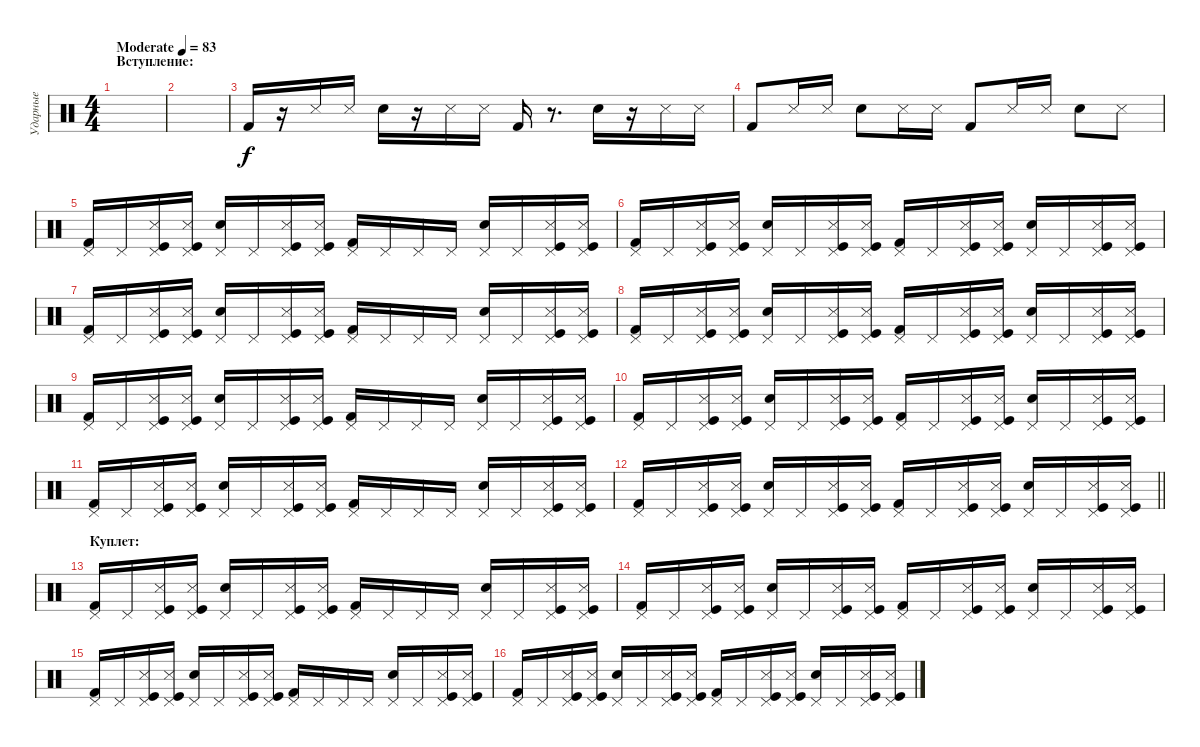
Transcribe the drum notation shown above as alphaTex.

\track ("Ударные" "Ударные") {instrument percussion}
\staff {score}
\articulation defaults
\ts (4 4)
\section ("" "Вступление:")
\tempo (83 "Moderate")
\clef neutral
\ks c
|
|
"Kick (hit) 2".16 r.16 "Snare (side stick) 3".16 "Snare (side stick) 3".16 "Electric Snare (hit)".16 r.16 "Snare (side stick) 3".16 "Snare (side stick) 3".16 "Kick (hit) 2".16 r.8{d} "Electric Snare (hit)".16 r.16 "Snare (side stick) 3".16 "Snare (side stick) 3".16 |
"Kick (hit) 2".8 "Snare (side stick) 3".16 "Snare (side stick) 3".16 "Electric Snare (hit)".8 "Snare (side stick) 3".16 "Snare (side stick) 3".16 "Kick (hit) 2".8 "Snare (side stick) 3".16 "Snare (side stick) 3".16 "Electric Snare (hit)".8 "Snare (side stick) 3".8 |
("Kick (hit) 2" "Pedal Hi-Hat (hit)").16 "Pedal Hi-Hat (hit)".16 ("Kick (hit)" "Snare (side stick) 3" "Pedal Hi-Hat (hit)").16 ("Kick (hit)" "Snare (side stick) 3" "Pedal Hi-Hat (hit)").16 ("Electric Snare (hit)" "Pedal Hi-Hat (hit)").16 "Pedal Hi-Hat (hit)".16 ("Kick (hit)" "Snare (side stick) 3" "Pedal Hi-Hat (hit)").16 ("Kick (hit)" "Snare (side stick) 3" "Pedal Hi-Hat (hit)").16 ("Kick (hit) 2" "Pedal Hi-Hat (hit)").16 "Pedal Hi-Hat (hit)".16 "Pedal Hi-Hat (hit)".16 "Pedal Hi-Hat (hit)".16 ("Electric Snare (hit)" "Pedal Hi-Hat (hit)").16 "Pedal Hi-Hat (hit)".16 ("Kick (hit)" "Snare (side stick) 3" "Pedal Hi-Hat (hit)").16 ("Kick (hit)" "Snare (side stick) 3" "Pedal Hi-Hat (hit)").16 |
("Kick (hit) 2" "Pedal Hi-Hat (hit)").16 "Pedal Hi-Hat (hit)".16 ("Kick (hit)" "Snare (side stick) 3" "Pedal Hi-Hat (hit)").16 ("Kick (hit)" "Snare (side stick) 3" "Pedal Hi-Hat (hit)").16 ("Electric Snare (hit)" "Pedal Hi-Hat (hit)").16 "Pedal Hi-Hat (hit)".16 ("Kick (hit)" "Snare (side stick) 3" "Pedal Hi-Hat (hit)").16 ("Kick (hit)" "Snare (side stick) 3" "Pedal Hi-Hat (hit)").16 ("Kick (hit) 2" "Pedal Hi-Hat (hit)").16 "Pedal Hi-Hat (hit)".16 ("Kick (hit)" "Snare (side stick) 3" "Pedal Hi-Hat (hit)").16 ("Kick (hit)" "Snare (side stick) 3" "Pedal Hi-Hat (hit)").16 ("Electric Snare (hit)" "Pedal Hi-Hat (hit)").16 "Pedal Hi-Hat (hit)".16 ("Kick (hit)" "Snare (side stick) 3" "Pedal Hi-Hat (hit)").16 ("Kick (hit)" "Snare (side stick) 3" "Pedal Hi-Hat (hit)").16 |
("Kick (hit) 2" "Pedal Hi-Hat (hit)").16 "Pedal Hi-Hat (hit)".16 ("Kick (hit)" "Snare (side stick) 3" "Pedal Hi-Hat (hit)").16 ("Kick (hit)" "Snare (side stick) 3" "Pedal Hi-Hat (hit)").16 ("Electric Snare (hit)" "Pedal Hi-Hat (hit)").16 "Pedal Hi-Hat (hit)".16 ("Kick (hit)" "Snare (side stick) 3" "Pedal Hi-Hat (hit)").16 ("Kick (hit)" "Snare (side stick) 3" "Pedal Hi-Hat (hit)").16 ("Kick (hit) 2" "Pedal Hi-Hat (hit)").16 "Pedal Hi-Hat (hit)".16 "Pedal Hi-Hat (hit)".16 "Pedal Hi-Hat (hit)".16 ("Electric Snare (hit)" "Pedal Hi-Hat (hit)").16 "Pedal Hi-Hat (hit)".16 ("Kick (hit)" "Snare (side stick) 3" "Pedal Hi-Hat (hit)").16 ("Kick (hit)" "Snare (side stick) 3" "Pedal Hi-Hat (hit)").16 |
("Kick (hit) 2" "Pedal Hi-Hat (hit)").16 "Pedal Hi-Hat (hit)".16 ("Kick (hit)" "Snare (side stick) 3" "Pedal Hi-Hat (hit)").16 ("Kick (hit)" "Snare (side stick) 3" "Pedal Hi-Hat (hit)").16 ("Electric Snare (hit)" "Pedal Hi-Hat (hit)").16 "Pedal Hi-Hat (hit)".16 ("Kick (hit)" "Snare (side stick) 3" "Pedal Hi-Hat (hit)").16 ("Kick (hit)" "Snare (side stick) 3" "Pedal Hi-Hat (hit)").16 ("Kick (hit) 2" "Pedal Hi-Hat (hit)").16 "Pedal Hi-Hat (hit)".16 ("Kick (hit)" "Snare (side stick) 3" "Pedal Hi-Hat (hit)").16 ("Kick (hit)" "Snare (side stick) 3" "Pedal Hi-Hat (hit)").16 ("Electric Snare (hit)" "Pedal Hi-Hat (hit)").16 "Pedal Hi-Hat (hit)".16 ("Kick (hit)" "Snare (side stick) 3" "Pedal Hi-Hat (hit)").16 ("Kick (hit)" "Snare (side stick) 3" "Pedal Hi-Hat (hit)").16 |
("Kick (hit) 2" "Pedal Hi-Hat (hit)").16 "Pedal Hi-Hat (hit)".16 ("Kick (hit)" "Snare (side stick) 3" "Pedal Hi-Hat (hit)").16 ("Kick (hit)" "Snare (side stick) 3" "Pedal Hi-Hat (hit)").16 ("Electric Snare (hit)" "Pedal Hi-Hat (hit)").16 "Pedal Hi-Hat (hit)".16 ("Kick (hit)" "Snare (side stick) 3" "Pedal Hi-Hat (hit)").16 ("Kick (hit)" "Snare (side stick) 3" "Pedal Hi-Hat (hit)").16 ("Kick (hit) 2" "Pedal Hi-Hat (hit)").16 "Pedal Hi-Hat (hit)".16 "Pedal Hi-Hat (hit)".16 "Pedal Hi-Hat (hit)".16 ("Electric Snare (hit)" "Pedal Hi-Hat (hit)").16 "Pedal Hi-Hat (hit)".16 ("Kick (hit)" "Snare (side stick) 3" "Pedal Hi-Hat (hit)").16 ("Kick (hit)" "Snare (side stick) 3" "Pedal Hi-Hat (hit)").16 |
("Kick (hit) 2" "Pedal Hi-Hat (hit)").16 "Pedal Hi-Hat (hit)".16 ("Kick (hit)" "Snare (side stick) 3" "Pedal Hi-Hat (hit)").16 ("Kick (hit)" "Snare (side stick) 3" "Pedal Hi-Hat (hit)").16 ("Electric Snare (hit)" "Pedal Hi-Hat (hit)").16 "Pedal Hi-Hat (hit)".16 ("Kick (hit)" "Snare (side stick) 3" "Pedal Hi-Hat (hit)").16 ("Kick (hit)" "Snare (side stick) 3" "Pedal Hi-Hat (hit)").16 ("Kick (hit) 2" "Pedal Hi-Hat (hit)").16 "Pedal Hi-Hat (hit)".16 ("Kick (hit)" "Snare (side stick) 3" "Pedal Hi-Hat (hit)").16 ("Kick (hit)" "Snare (side stick) 3" "Pedal Hi-Hat (hit)").16 ("Electric Snare (hit)" "Pedal Hi-Hat (hit)").16 "Pedal Hi-Hat (hit)".16 ("Kick (hit)" "Snare (side stick) 3" "Pedal Hi-Hat (hit)").16 ("Kick (hit)" "Snare (side stick) 3" "Pedal Hi-Hat (hit)").16 |
("Kick (hit) 2" "Pedal Hi-Hat (hit)").16 "Pedal Hi-Hat (hit)".16 ("Kick (hit)" "Snare (side stick) 3" "Pedal Hi-Hat (hit)").16 ("Kick (hit)" "Snare (side stick) 3" "Pedal Hi-Hat (hit)").16 ("Electric Snare (hit)" "Pedal Hi-Hat (hit)").16 "Pedal Hi-Hat (hit)".16 ("Kick (hit)" "Snare (side stick) 3" "Pedal Hi-Hat (hit)").16 ("Kick (hit)" "Snare (side stick) 3" "Pedal Hi-Hat (hit)").16 ("Kick (hit) 2" "Pedal Hi-Hat (hit)").16 "Pedal Hi-Hat (hit)".16 "Pedal Hi-Hat (hit)".16 "Pedal Hi-Hat (hit)".16 ("Electric Snare (hit)" "Pedal Hi-Hat (hit)").16 "Pedal Hi-Hat (hit)".16 ("Kick (hit)" "Snare (side stick) 3" "Pedal Hi-Hat (hit)").16 ("Kick (hit)" "Snare (side stick) 3" "Pedal Hi-Hat (hit)").16 |
\barLineRight lightlight
("Kick (hit) 2" "Pedal Hi-Hat (hit)").16 "Pedal Hi-Hat (hit)".16 ("Kick (hit)" "Snare (side stick) 3" "Pedal Hi-Hat (hit)").16 ("Kick (hit)" "Snare (side stick) 3" "Pedal Hi-Hat (hit)").16 ("Electric Snare (hit)" "Pedal Hi-Hat (hit)").16 "Pedal Hi-Hat (hit)".16 ("Kick (hit)" "Snare (side stick) 3" "Pedal Hi-Hat (hit)").16 ("Kick (hit)" "Snare (side stick) 3" "Pedal Hi-Hat (hit)").16 ("Kick (hit) 2" "Pedal Hi-Hat (hit)").16 "Pedal Hi-Hat (hit)".16 ("Kick (hit)" "Snare (side stick) 3" "Pedal Hi-Hat (hit)").16 ("Kick (hit)" "Snare (side stick) 3" "Pedal Hi-Hat (hit)").16 ("Electric Snare (hit)" "Pedal Hi-Hat (hit)").16 "Pedal Hi-Hat (hit)".16 ("Kick (hit)" "Snare (side stick) 3" "Pedal Hi-Hat (hit)").16 ("Kick (hit)" "Snare (side stick) 3" "Pedal Hi-Hat (hit)").16 |
\section ("" "Куплет:")
("Kick (hit) 2" "Pedal Hi-Hat (hit)").16 "Pedal Hi-Hat (hit)".16 ("Kick (hit)" "Snare (side stick) 3" "Pedal Hi-Hat (hit)").16 ("Kick (hit)" "Snare (side stick) 3" "Pedal Hi-Hat (hit)").16 ("Electric Snare (hit)" "Pedal Hi-Hat (hit)").16 "Pedal Hi-Hat (hit)".16 ("Kick (hit)" "Snare (side stick) 3" "Pedal Hi-Hat (hit)").16 ("Kick (hit)" "Snare (side stick) 3" "Pedal Hi-Hat (hit)").16 ("Kick (hit) 2" "Pedal Hi-Hat (hit)").16 "Pedal Hi-Hat (hit)".16 "Pedal Hi-Hat (hit)".16 "Pedal Hi-Hat (hit)".16 ("Electric Snare (hit)" "Pedal Hi-Hat (hit)").16 "Pedal Hi-Hat (hit)".16 ("Kick (hit)" "Snare (side stick) 3" "Pedal Hi-Hat (hit)").16 ("Kick (hit)" "Snare (side stick) 3" "Pedal Hi-Hat (hit)").16 |
("Kick (hit) 2" "Pedal Hi-Hat (hit)").16 "Pedal Hi-Hat (hit)".16 ("Kick (hit)" "Snare (side stick) 3" "Pedal Hi-Hat (hit)").16 ("Kick (hit)" "Snare (side stick) 3" "Pedal Hi-Hat (hit)").16 ("Electric Snare (hit)" "Pedal Hi-Hat (hit)").16 "Pedal Hi-Hat (hit)".16 ("Kick (hit)" "Snare (side stick) 3" "Pedal Hi-Hat (hit)").16 ("Kick (hit)" "Snare (side stick) 3" "Pedal Hi-Hat (hit)").16 ("Kick (hit) 2" "Pedal Hi-Hat (hit)").16 "Pedal Hi-Hat (hit)".16 ("Kick (hit)" "Snare (side stick) 3" "Pedal Hi-Hat (hit)").16 ("Kick (hit)" "Snare (side stick) 3" "Pedal Hi-Hat (hit)").16 ("Electric Snare (hit)" "Pedal Hi-Hat (hit)").16 "Pedal Hi-Hat (hit)".16 ("Kick (hit)" "Snare (side stick) 3" "Pedal Hi-Hat (hit)").16 ("Kick (hit)" "Snare (side stick) 3" "Pedal Hi-Hat (hit)").16 |
("Kick (hit) 2" "Pedal Hi-Hat (hit)").16 "Pedal Hi-Hat (hit)".16 ("Kick (hit)" "Snare (side stick) 3" "Pedal Hi-Hat (hit)").16 ("Kick (hit)" "Snare (side stick) 3" "Pedal Hi-Hat (hit)").16 ("Electric Snare (hit)" "Pedal Hi-Hat (hit)").16 "Pedal Hi-Hat (hit)".16 ("Kick (hit)" "Snare (side stick) 3" "Pedal Hi-Hat (hit)").16 ("Kick (hit)" "Snare (side stick) 3" "Pedal Hi-Hat (hit)").16 ("Kick (hit) 2" "Pedal Hi-Hat (hit)").16 "Pedal Hi-Hat (hit)".16 "Pedal Hi-Hat (hit)".16 "Pedal Hi-Hat (hit)".16 ("Electric Snare (hit)" "Pedal Hi-Hat (hit)").16 "Pedal Hi-Hat (hit)".16 ("Kick (hit)" "Snare (side stick) 3" "Pedal Hi-Hat (hit)").16 ("Kick (hit)" "Snare (side stick) 3" "Pedal Hi-Hat (hit)").16 |
("Kick (hit) 2" "Pedal Hi-Hat (hit)").16 "Pedal Hi-Hat (hit)".16 ("Kick (hit)" "Snare (side stick) 3" "Pedal Hi-Hat (hit)").16 ("Kick (hit)" "Snare (side stick) 3" "Pedal Hi-Hat (hit)").16 ("Electric Snare (hit)" "Pedal Hi-Hat (hit)").16 "Pedal Hi-Hat (hit)".16 ("Kick (hit)" "Snare (side stick) 3" "Pedal Hi-Hat (hit)").16 ("Kick (hit)" "Snare (side stick) 3" "Pedal Hi-Hat (hit)").16 ("Kick (hit) 2" "Pedal Hi-Hat (hit)").16 "Pedal Hi-Hat (hit)".16 ("Kick (hit)" "Snare (side stick) 3" "Pedal Hi-Hat (hit)").16 ("Kick (hit)" "Snare (side stick) 3" "Pedal Hi-Hat (hit)").16 ("Electric Snare (hit)" "Pedal Hi-Hat (hit)").16 "Pedal Hi-Hat (hit)".16 ("Kick (hit)" "Snare (side stick) 3" "Pedal Hi-Hat (hit)").16 ("Kick (hit)" "Snare (side stick) 3" "Pedal Hi-Hat (hit)").16
